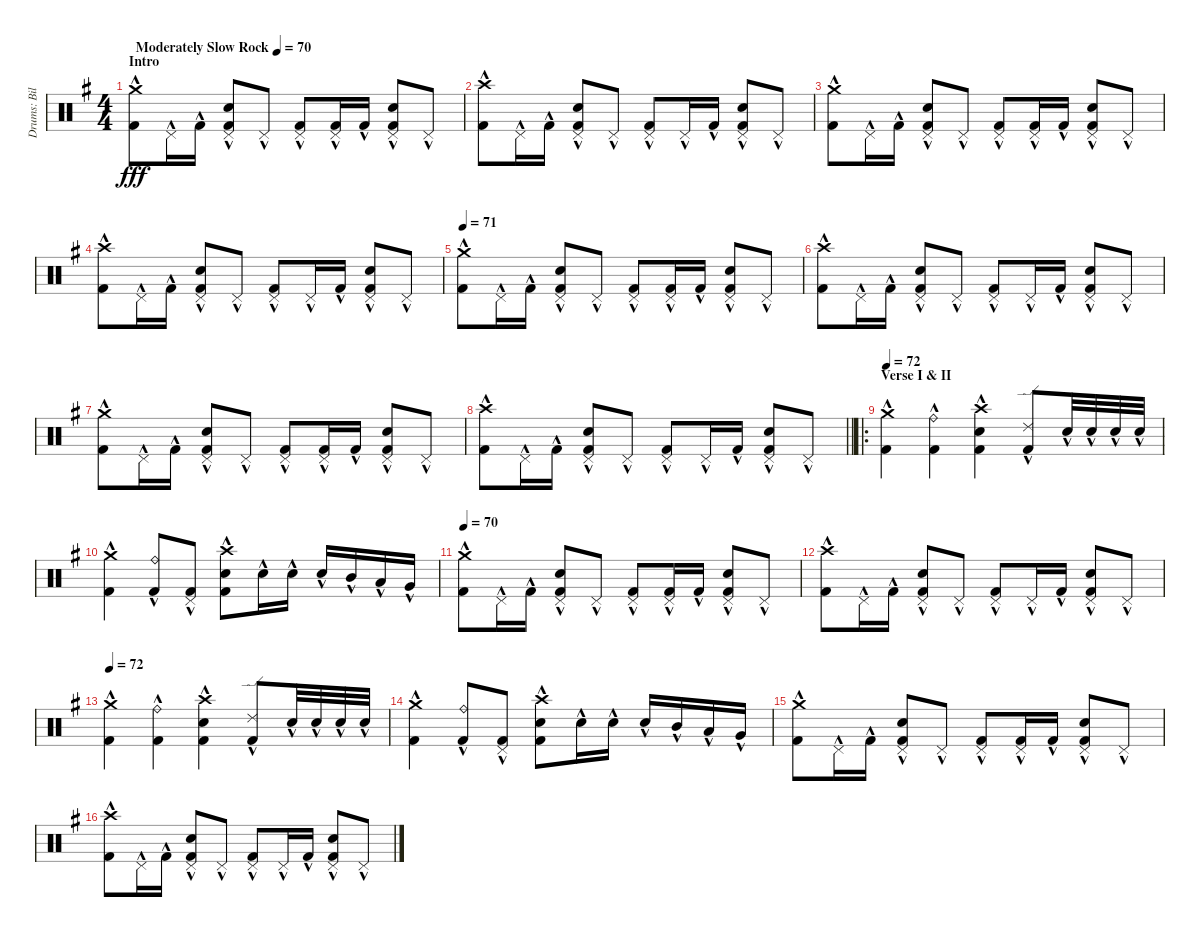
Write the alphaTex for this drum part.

\track ("Drums: Bill" "Drums: Bil") {instrument percussion}
\staff {score}
\articulation defaults
\ts (4 4)
\section ("" "Intro")
\tempo (70 "Moderately Slow Rock")
\clef neutral
\ks g
("Crash medium (hit)"{hac} "Kick (hit) 2"{hac}).8{dy fff} "Pedal Hi-Hat (hit)"{hac}.16 "Kick (hit) 2"{hac}.16 ("Pedal Hi-Hat (hit)"{hac} "Snare (hit) 2"{hac} "Kick (hit) 2"{hac}).8 "Pedal Hi-Hat (hit)"{hac}.8 ("Pedal Hi-Hat (hit)"{hac} "Kick (hit) 2"{hac}).8 ("Pedal Hi-Hat (hit)"{hac} "Kick (hit) 2"{hac}).16 "Kick (hit) 2"{hac}.16 ("Pedal Hi-Hat (hit)"{hac} "Snare (hit) 2"{hac} "Kick (hit) 2"{hac}).8 "Pedal Hi-Hat (hit)"{hac}.8 |
("Crash high (hit)"{hac} "Kick (hit) 2"{hac}).8 "Pedal Hi-Hat (hit)"{hac}.16 "Kick (hit) 2"{hac}.16 ("Pedal Hi-Hat (hit)"{hac} "Snare (hit) 2"{hac} "Kick (hit) 2"{hac}).8 "Pedal Hi-Hat (hit)"{hac}.8 ("Pedal Hi-Hat (hit)"{hac} "Kick (hit) 2"{hac}).8 "Pedal Hi-Hat (hit)"{hac}.16 "Kick (hit) 2"{hac}.16 ("Pedal Hi-Hat (hit)"{hac} "Snare (hit) 2"{hac} "Kick (hit) 2"{hac}).8 "Pedal Hi-Hat (hit)"{hac}.8 |
("Crash medium (hit)"{hac} "Kick (hit) 2"{hac}).8 "Pedal Hi-Hat (hit)"{hac}.16 "Kick (hit) 2"{hac}.16 ("Pedal Hi-Hat (hit)"{hac} "Snare (hit) 2"{hac} "Kick (hit) 2"{hac}).8 "Pedal Hi-Hat (hit)"{hac}.8 ("Pedal Hi-Hat (hit)"{hac} "Kick (hit) 2"{hac}).8 ("Pedal Hi-Hat (hit)"{hac} "Kick (hit) 2"{hac}).16 "Kick (hit) 2"{hac}.16 ("Pedal Hi-Hat (hit)"{hac} "Snare (hit) 2"{hac} "Kick (hit) 2"{hac}).8 "Pedal Hi-Hat (hit)"{hac}.8 |
("Crash high (hit)"{hac} "Kick (hit) 2"{hac}).8 "Pedal Hi-Hat (hit)"{hac}.16 "Kick (hit) 2"{hac}.16 ("Pedal Hi-Hat (hit)"{hac} "Snare (hit) 2"{hac} "Kick (hit) 2"{hac}).8 "Pedal Hi-Hat (hit)"{hac}.8 ("Pedal Hi-Hat (hit)"{hac} "Kick (hit) 2"{hac}).8 "Pedal Hi-Hat (hit)"{hac}.16 "Kick (hit) 2"{hac}.16 ("Pedal Hi-Hat (hit)"{hac} "Snare (hit) 2"{hac} "Kick (hit) 2"{hac}).8 "Pedal Hi-Hat (hit)"{hac}.8 |
\tempo 71
("Crash medium (hit)"{hac} "Kick (hit) 2"{hac}).8 "Pedal Hi-Hat (hit)"{hac}.16 "Kick (hit) 2"{hac}.16 ("Pedal Hi-Hat (hit)"{hac} "Snare (hit) 2"{hac} "Kick (hit) 2"{hac}).8 "Pedal Hi-Hat (hit)"{hac}.8 ("Pedal Hi-Hat (hit)"{hac} "Kick (hit) 2"{hac}).8 ("Pedal Hi-Hat (hit)"{hac} "Kick (hit) 2"{hac}).16 "Kick (hit) 2"{hac}.16 ("Pedal Hi-Hat (hit)"{hac} "Snare (hit) 2"{hac} "Kick (hit) 2"{hac}).8 "Pedal Hi-Hat (hit)"{hac}.8 |
("Crash high (hit)"{hac} "Kick (hit) 2"{hac}).8 "Pedal Hi-Hat (hit)"{hac}.16 "Kick (hit) 2"{hac}.16 ("Pedal Hi-Hat (hit)"{hac} "Snare (hit) 2"{hac} "Kick (hit) 2"{hac}).8 "Pedal Hi-Hat (hit)"{hac}.8 ("Pedal Hi-Hat (hit)"{hac} "Kick (hit) 2"{hac}).8 "Pedal Hi-Hat (hit)"{hac}.16 "Kick (hit) 2"{hac}.16 ("Pedal Hi-Hat (hit)"{hac} "Snare (hit) 2"{hac} "Kick (hit) 2"{hac}).8 "Pedal Hi-Hat (hit)"{hac}.8 |
("Crash medium (hit)"{hac} "Kick (hit) 2"{hac}).8 "Pedal Hi-Hat (hit)"{hac}.16 "Kick (hit) 2"{hac}.16 ("Pedal Hi-Hat (hit)"{hac} "Snare (hit) 2"{hac} "Kick (hit) 2"{hac}).8 "Pedal Hi-Hat (hit)"{hac}.8 ("Pedal Hi-Hat (hit)"{hac} "Kick (hit) 2"{hac}).8 ("Pedal Hi-Hat (hit)"{hac} "Kick (hit) 2"{hac}).16 "Kick (hit) 2"{hac}.16 ("Pedal Hi-Hat (hit)"{hac} "Snare (hit) 2"{hac} "Kick (hit) 2"{hac}).8 "Pedal Hi-Hat (hit)"{hac}.8 |
\barLineRight lightlight
("Crash high (hit)"{hac} "Kick (hit) 2"{hac}).8 "Pedal Hi-Hat (hit)"{hac}.16 "Kick (hit) 2"{hac}.16 ("Pedal Hi-Hat (hit)"{hac} "Snare (hit) 2"{hac} "Kick (hit) 2"{hac}).8 "Pedal Hi-Hat (hit)"{hac}.8 ("Pedal Hi-Hat (hit)"{hac} "Kick (hit) 2"{hac}).8 "Pedal Hi-Hat (hit)"{hac}.16 "Kick (hit) 2"{hac}.16 ("Pedal Hi-Hat (hit)"{hac} "Snare (hit) 2"{hac} "Kick (hit) 2"{hac}).8 "Pedal Hi-Hat (hit)"{hac}.8 |
\ro
\section ("" "Verse I & II")
\tempo 72
("Crash medium (hit)"{hac} "Kick (hit) 2"{hac}).4 ("Ride (bell)"{hac} "Kick (hit) 2"{hac}).4 ("Crash high (hit)"{hac} "Snare (hit) 2"{hac} "Kick (hit) 2"{hac}).4 ("Ride (edge) 2"{hac} "Kick (hit) 2"{hac}).8 "Snare (hit) 2"{hac}.32 "Snare (hit) 2"{hac}.32 "Snare (hit) 2"{hac}.32 "Snare (hit) 2"{hac}.32 |
("Crash medium (hit)"{hac} "Kick (hit) 2"{hac}).4 ("Ride (bell)"{hac} "Kick (hit) 2"{hac}).8 ("Pedal Hi-Hat (hit)"{hac} "Kick (hit) 2"{hac}).8 ("Crash high (hit)"{hac} "Snare (hit) 2"{hac} "Kick (hit) 2"{hac}).8 "Snare (hit) 2"{hac}.16 "Snare (hit) 2"{hac}.16 "Snare (hit) 2"{hac}.16 "Mid Tom (hit)"{hac}.16 "Low Tom (hit)"{hac}.16 "Very Low Tom (hit)"{hac}.16 |
\tempo 70
("Crash medium (hit)"{hac} "Kick (hit) 2"{hac}).8 "Pedal Hi-Hat (hit)"{hac}.16 "Kick (hit) 2"{hac}.16 ("Pedal Hi-Hat (hit)"{hac} "Snare (hit) 2"{hac} "Kick (hit) 2"{hac}).8 "Pedal Hi-Hat (hit)"{hac}.8 ("Pedal Hi-Hat (hit)"{hac} "Kick (hit) 2"{hac}).8 ("Pedal Hi-Hat (hit)"{hac} "Kick (hit) 2"{hac}).16 "Kick (hit) 2"{hac}.16 ("Pedal Hi-Hat (hit)"{hac} "Snare (hit) 2"{hac} "Kick (hit) 2"{hac}).8 "Pedal Hi-Hat (hit)"{hac}.8 |
("Crash high (hit)"{hac} "Kick (hit) 2"{hac}).8 "Pedal Hi-Hat (hit)"{hac}.16 "Kick (hit) 2"{hac}.16 ("Pedal Hi-Hat (hit)"{hac} "Snare (hit) 2"{hac} "Kick (hit) 2"{hac}).8 "Pedal Hi-Hat (hit)"{hac}.8 ("Pedal Hi-Hat (hit)"{hac} "Kick (hit) 2"{hac}).8 "Pedal Hi-Hat (hit)"{hac}.16 "Kick (hit) 2"{hac}.16 ("Pedal Hi-Hat (hit)"{hac} "Snare (hit) 2"{hac} "Kick (hit) 2"{hac}).8 "Pedal Hi-Hat (hit)"{hac}.8 |
\tempo 72
("Crash medium (hit)"{hac} "Kick (hit) 2"{hac}).4 ("Ride (bell)"{hac} "Kick (hit) 2"{hac}).4 ("Crash high (hit)"{hac} "Snare (hit) 2"{hac} "Kick (hit) 2"{hac}).4 ("Ride (edge) 2"{hac} "Kick (hit) 2"{hac}).8 "Snare (hit) 2"{hac}.32 "Snare (hit) 2"{hac}.32 "Snare (hit) 2"{hac}.32 "Snare (hit) 2"{hac}.32 |
("Crash medium (hit)"{hac} "Kick (hit) 2"{hac}).4 ("Ride (bell)"{hac} "Kick (hit) 2"{hac}).8 ("Pedal Hi-Hat (hit)"{hac} "Kick (hit) 2"{hac}).8 ("Crash high (hit)"{hac} "Snare (hit) 2"{hac} "Kick (hit) 2"{hac}).8 "Snare (hit) 2"{hac}.16 "Snare (hit) 2"{hac}.16 "Snare (hit) 2"{hac}.16 "Mid Tom (hit)"{hac}.16 "Low Tom (hit)"{hac}.16 "Very Low Tom (hit)"{hac}.16 |
("Crash medium (hit)"{hac} "Kick (hit) 2"{hac}).8 "Pedal Hi-Hat (hit)"{hac}.16 "Kick (hit) 2"{hac}.16 ("Pedal Hi-Hat (hit)"{hac} "Snare (hit) 2"{hac} "Kick (hit) 2"{hac}).8 "Pedal Hi-Hat (hit)"{hac}.8 ("Pedal Hi-Hat (hit)"{hac} "Kick (hit) 2"{hac}).8 ("Pedal Hi-Hat (hit)"{hac} "Kick (hit) 2"{hac}).16 "Kick (hit) 2"{hac}.16 ("Pedal Hi-Hat (hit)"{hac} "Snare (hit) 2"{hac} "Kick (hit) 2"{hac}).8 "Pedal Hi-Hat (hit)"{hac}.8 |
("Crash high (hit)"{hac} "Kick (hit) 2"{hac}).8 "Pedal Hi-Hat (hit)"{hac}.16 "Kick (hit) 2"{hac}.16 ("Pedal Hi-Hat (hit)"{hac} "Snare (hit) 2"{hac} "Kick (hit) 2"{hac}).8 "Pedal Hi-Hat (hit)"{hac}.8 ("Pedal Hi-Hat (hit)"{hac} "Kick (hit) 2"{hac}).8 "Pedal Hi-Hat (hit)"{hac}.16 "Kick (hit) 2"{hac}.16 ("Pedal Hi-Hat (hit)"{hac} "Snare (hit) 2"{hac} "Kick (hit) 2"{hac}).8 "Pedal Hi-Hat (hit)"{hac}.8
